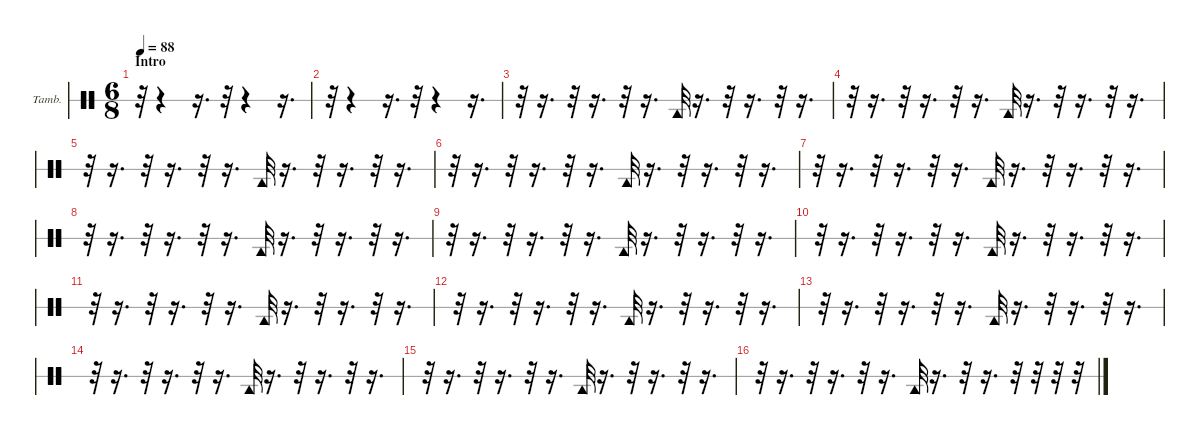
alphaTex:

\hideDynamics
\bracketExtendMode nobrackets
\firstSystemTrackNameOrientation horizontal
\otherSystemsTrackNameOrientation horizontal
\track ("Tambourine" "Tamb.") {instrument percussion}
\staff {score 1}
\articulation defaults
\ts (6 8)
\section ("" "Intro")
\tempo 88
\clef neutral
\ks c
r.32{dy ff} r.4 r.16{d} r.32 r.4 r.16{d} |
r.32 r.4 r.16{d} r.32 r.4 r.16{d} |
r.32 r.16{d} r.32 r.16{d} r.32 r.16{d} "Tambourine (hit)".32 r.16{d} r.32 r.16{d} r.32 r.16{d} |
r.32 r.16{d} r.32 r.16{d} r.32 r.16{d} "Tambourine (hit)".32 r.16{d} r.32 r.16{d} r.32 r.16{d} |
r.32 r.16{d} r.32 r.16{d} r.32 r.16{d} "Tambourine (hit)".32 r.16{d} r.32 r.16{d} r.32 r.16{d} |
r.32 r.16{d} r.32 r.16{d} r.32 r.16{d} "Tambourine (hit)".32 r.16{d} r.32 r.16{d} r.32 r.16{d} |
r.32 r.16{d} r.32 r.16{d} r.32 r.16{d} "Tambourine (hit)".32 r.16{d} r.32 r.16{d} r.32 r.16{d} |
r.32 r.16{d} r.32 r.16{d} r.32 r.16{d} "Tambourine (hit)".32 r.16{d} r.32 r.16{d} r.32 r.16{d} |
r.32 r.16{d} r.32 r.16{d} r.32 r.16{d} "Tambourine (hit)".32 r.16{d} r.32 r.16{d} r.32 r.16{d} |
r.32 r.16{d} r.32 r.16{d} r.32 r.16{d} "Tambourine (hit)".32 r.16{d} r.32 r.16{d} r.32 r.16{d} |
r.32 r.16{d} r.32 r.16{d} r.32 r.16{d} "Tambourine (hit)".32 r.16{d} r.32 r.16{d} r.32 r.16{d} |
r.32 r.16{d} r.32 r.16{d} r.32 r.16{d} "Tambourine (hit)".32 r.16{d} r.32 r.16{d} r.32 r.16{d} |
r.32 r.16{d} r.32 r.16{d} r.32 r.16{d} "Tambourine (hit)".32 r.16{d} r.32 r.16{d} r.32 r.16{d} |
r.32 r.16{d} r.32 r.16{d} r.32 r.16{d} "Tambourine (hit)".32 r.16{d} r.32 r.16{d} r.32 r.16{d} |
r.32 r.16{d} r.32 r.16{d} r.32 r.16{d} "Tambourine (hit)".32 r.16{d} r.32 r.16{d} r.32 r.16{d} |
r.32 r.16{d} r.32 r.16{d} r.32 r.16{d} "Tambourine (hit)".32 r.16{d} r.32 r.16{d} r.32 r.32 r.32 r.32
